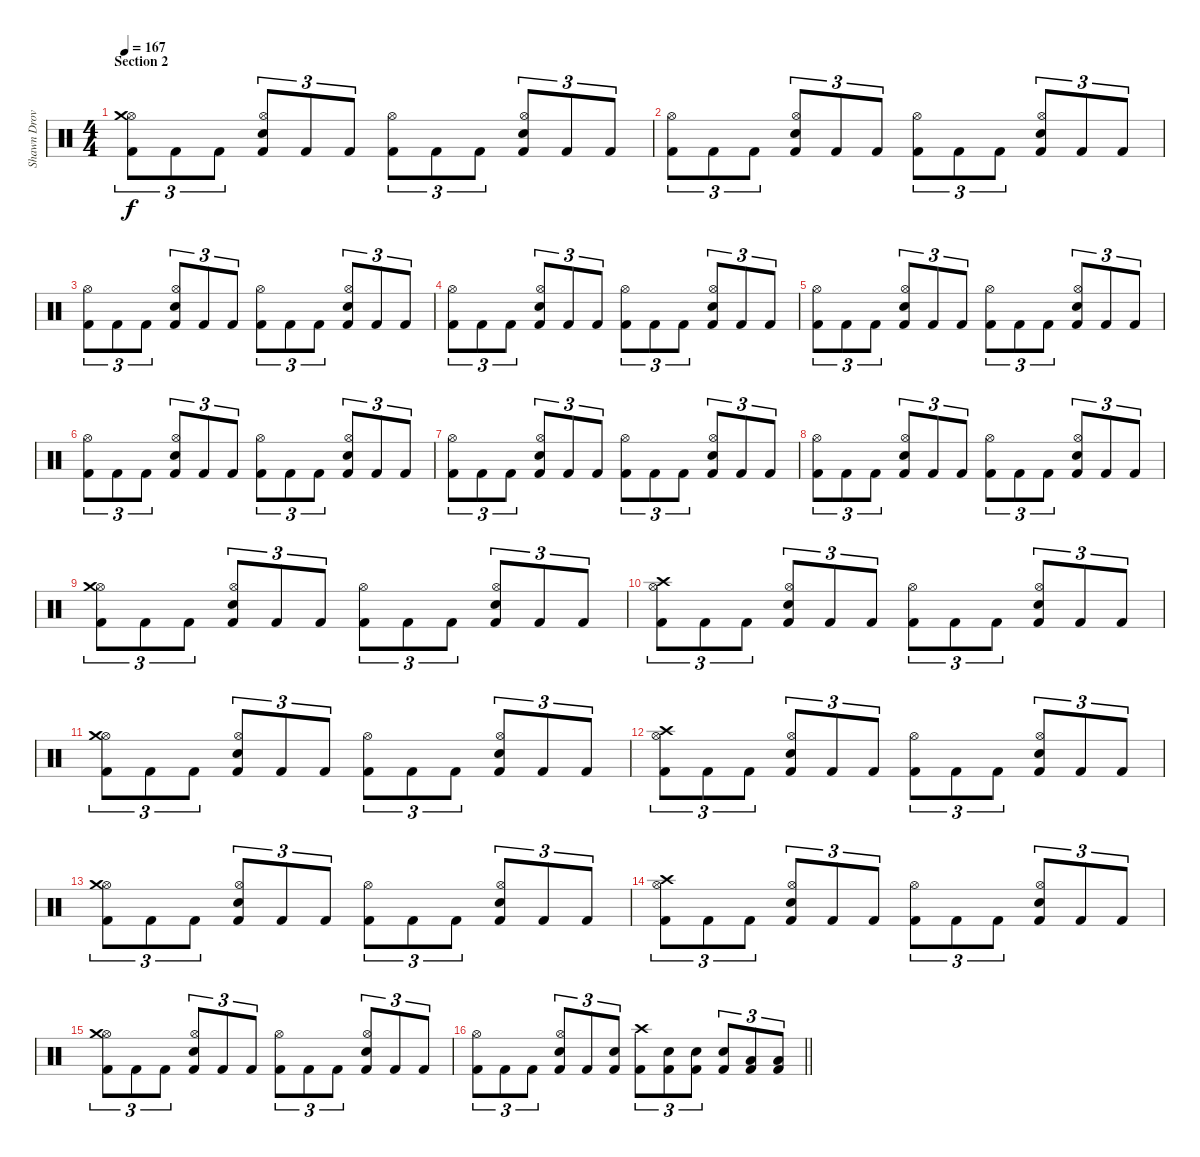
\track ("Shawn Drover" "Shawn Drov") {instrument percussion}
\staff {score}
\articulation defaults
\ts (4 4)
\section ("" "Section 2")
\tempo 167
\clef neutral
\ks c
("Kick (hit) 2" "Hi-Hat (open)" "Crash medium (hit)").8{tu (3 2) dy f} "Kick (hit) 2".8{tu (3 2)} "Kick (hit) 2".8{tu (3 2)} ("Kick (hit) 2" "Snare (hit) 2" "Hi-Hat (open)").8{tu (3 2)} "Kick (hit) 2".8{tu (3 2)} "Kick (hit) 2".8{tu (3 2)} ("Kick (hit) 2" "Hi-Hat (open)").8{tu (3 2)} "Kick (hit) 2".8{tu (3 2)} "Kick (hit) 2".8{tu (3 2)} ("Kick (hit) 2" "Snare (hit) 2" "Hi-Hat (open)").8{tu (3 2)} "Kick (hit) 2".8{tu (3 2)} "Kick (hit) 2".8{tu (3 2)} |
("Kick (hit) 2" "Hi-Hat (open)").8{tu (3 2)} "Kick (hit) 2".8{tu (3 2)} "Kick (hit) 2".8{tu (3 2)} ("Kick (hit) 2" "Snare (hit) 2" "Hi-Hat (open)").8{tu (3 2)} "Kick (hit) 2".8{tu (3 2)} "Kick (hit) 2".8{tu (3 2)} ("Kick (hit) 2" "Hi-Hat (open)").8{tu (3 2)} "Kick (hit) 2".8{tu (3 2)} "Kick (hit) 2".8{tu (3 2)} ("Kick (hit) 2" "Snare (hit) 2" "Hi-Hat (open)").8{tu (3 2)} "Kick (hit) 2".8{tu (3 2)} "Kick (hit) 2".8{tu (3 2)} |
("Kick (hit) 2" "Hi-Hat (open)").8{tu (3 2)} "Kick (hit) 2".8{tu (3 2)} "Kick (hit) 2".8{tu (3 2)} ("Kick (hit) 2" "Snare (hit) 2" "Hi-Hat (open)").8{tu (3 2)} "Kick (hit) 2".8{tu (3 2)} "Kick (hit) 2".8{tu (3 2)} ("Kick (hit) 2" "Hi-Hat (open)").8{tu (3 2)} "Kick (hit) 2".8{tu (3 2)} "Kick (hit) 2".8{tu (3 2)} ("Kick (hit) 2" "Snare (hit) 2" "Hi-Hat (open)").8{tu (3 2)} "Kick (hit) 2".8{tu (3 2)} "Kick (hit) 2".8{tu (3 2)} |
("Kick (hit) 2" "Hi-Hat (open)").8{tu (3 2)} "Kick (hit) 2".8{tu (3 2)} "Kick (hit) 2".8{tu (3 2)} ("Kick (hit) 2" "Snare (hit) 2" "Hi-Hat (open)").8{tu (3 2)} "Kick (hit) 2".8{tu (3 2)} "Kick (hit) 2".8{tu (3 2)} ("Kick (hit) 2" "Hi-Hat (open)").8{tu (3 2)} "Kick (hit) 2".8{tu (3 2)} "Kick (hit) 2".8{tu (3 2)} ("Kick (hit) 2" "Snare (hit) 2" "Hi-Hat (open)").8{tu (3 2)} "Kick (hit) 2".8{tu (3 2)} "Kick (hit) 2".8{tu (3 2)} |
("Kick (hit) 2" "Hi-Hat (open)").8{tu (3 2)} "Kick (hit) 2".8{tu (3 2)} "Kick (hit) 2".8{tu (3 2)} ("Kick (hit) 2" "Snare (hit) 2" "Hi-Hat (open)").8{tu (3 2)} "Kick (hit) 2".8{tu (3 2)} "Kick (hit) 2".8{tu (3 2)} ("Kick (hit) 2" "Hi-Hat (open)").8{tu (3 2)} "Kick (hit) 2".8{tu (3 2)} "Kick (hit) 2".8{tu (3 2)} ("Kick (hit) 2" "Snare (hit) 2" "Hi-Hat (open)").8{tu (3 2)} "Kick (hit) 2".8{tu (3 2)} "Kick (hit) 2".8{tu (3 2)} |
("Kick (hit) 2" "Hi-Hat (open)").8{tu (3 2)} "Kick (hit) 2".8{tu (3 2)} "Kick (hit) 2".8{tu (3 2)} ("Kick (hit) 2" "Snare (hit) 2" "Hi-Hat (open)").8{tu (3 2)} "Kick (hit) 2".8{tu (3 2)} "Kick (hit) 2".8{tu (3 2)} ("Kick (hit) 2" "Hi-Hat (open)").8{tu (3 2)} "Kick (hit) 2".8{tu (3 2)} "Kick (hit) 2".8{tu (3 2)} ("Kick (hit) 2" "Snare (hit) 2" "Hi-Hat (open)").8{tu (3 2)} "Kick (hit) 2".8{tu (3 2)} "Kick (hit) 2".8{tu (3 2)} |
("Kick (hit) 2" "Hi-Hat (open)").8{tu (3 2)} "Kick (hit) 2".8{tu (3 2)} "Kick (hit) 2".8{tu (3 2)} ("Kick (hit) 2" "Snare (hit) 2" "Hi-Hat (open)").8{tu (3 2)} "Kick (hit) 2".8{tu (3 2)} "Kick (hit) 2".8{tu (3 2)} ("Kick (hit) 2" "Hi-Hat (open)").8{tu (3 2)} "Kick (hit) 2".8{tu (3 2)} "Kick (hit) 2".8{tu (3 2)} ("Kick (hit) 2" "Snare (hit) 2" "Hi-Hat (open)").8{tu (3 2)} "Kick (hit) 2".8{tu (3 2)} "Kick (hit) 2".8{tu (3 2)} |
("Kick (hit) 2" "Hi-Hat (open)").8{tu (3 2)} "Kick (hit) 2".8{tu (3 2)} "Kick (hit) 2".8{tu (3 2)} ("Kick (hit) 2" "Snare (hit) 2" "Hi-Hat (open)").8{tu (3 2)} "Kick (hit) 2".8{tu (3 2)} "Kick (hit) 2".8{tu (3 2)} ("Kick (hit) 2" "Hi-Hat (open)").8{tu (3 2)} "Kick (hit) 2".8{tu (3 2)} "Kick (hit) 2".8{tu (3 2)} ("Kick (hit) 2" "Snare (hit) 2" "Hi-Hat (open)").8{tu (3 2)} "Kick (hit) 2".8{tu (3 2)} "Kick (hit) 2".8{tu (3 2)} |
("Kick (hit) 2" "Hi-Hat (open)" "Crash medium (hit)").8{tu (3 2)} "Kick (hit) 2".8{tu (3 2)} "Kick (hit) 2".8{tu (3 2)} ("Kick (hit) 2" "Snare (hit) 2" "Hi-Hat (open)").8{tu (3 2)} "Kick (hit) 2".8{tu (3 2)} "Kick (hit) 2".8{tu (3 2)} ("Kick (hit) 2" "Hi-Hat (open)").8{tu (3 2)} "Kick (hit) 2".8{tu (3 2)} "Kick (hit) 2".8{tu (3 2)} ("Kick (hit) 2" "Snare (hit) 2" "Hi-Hat (open)").8{tu (3 2)} "Kick (hit) 2".8{tu (3 2)} "Kick (hit) 2".8{tu (3 2)} |
("Kick (hit) 2" "Hi-Hat (open)" "Crash high (hit)").8{tu (3 2)} "Kick (hit) 2".8{tu (3 2)} "Kick (hit) 2".8{tu (3 2)} ("Kick (hit) 2" "Snare (hit) 2" "Hi-Hat (open)").8{tu (3 2)} "Kick (hit) 2".8{tu (3 2)} "Kick (hit) 2".8{tu (3 2)} ("Kick (hit) 2" "Hi-Hat (open)").8{tu (3 2)} "Kick (hit) 2".8{tu (3 2)} "Kick (hit) 2".8{tu (3 2)} ("Kick (hit) 2" "Snare (hit) 2" "Hi-Hat (open)").8{tu (3 2)} "Kick (hit) 2".8{tu (3 2)} "Kick (hit) 2".8{tu (3 2)} |
("Kick (hit) 2" "Hi-Hat (open)" "Crash medium (hit)").8{tu (3 2)} "Kick (hit) 2".8{tu (3 2)} "Kick (hit) 2".8{tu (3 2)} ("Kick (hit) 2" "Snare (hit) 2" "Hi-Hat (open)").8{tu (3 2)} "Kick (hit) 2".8{tu (3 2)} "Kick (hit) 2".8{tu (3 2)} ("Kick (hit) 2" "Hi-Hat (open)").8{tu (3 2)} "Kick (hit) 2".8{tu (3 2)} "Kick (hit) 2".8{tu (3 2)} ("Kick (hit) 2" "Snare (hit) 2" "Hi-Hat (open)").8{tu (3 2)} "Kick (hit) 2".8{tu (3 2)} "Kick (hit) 2".8{tu (3 2)} |
("Kick (hit) 2" "Hi-Hat (open)" "Crash high (hit)").8{tu (3 2)} "Kick (hit) 2".8{tu (3 2)} "Kick (hit) 2".8{tu (3 2)} ("Kick (hit) 2" "Snare (hit) 2" "Hi-Hat (open)").8{tu (3 2)} "Kick (hit) 2".8{tu (3 2)} "Kick (hit) 2".8{tu (3 2)} ("Kick (hit) 2" "Hi-Hat (open)").8{tu (3 2)} "Kick (hit) 2".8{tu (3 2)} "Kick (hit) 2".8{tu (3 2)} ("Kick (hit) 2" "Snare (hit) 2" "Hi-Hat (open)").8{tu (3 2)} "Kick (hit) 2".8{tu (3 2)} "Kick (hit) 2".8{tu (3 2)} |
("Kick (hit) 2" "Hi-Hat (open)" "Crash medium (hit)").8{tu (3 2)} "Kick (hit) 2".8{tu (3 2)} "Kick (hit) 2".8{tu (3 2)} ("Kick (hit) 2" "Snare (hit) 2" "Hi-Hat (open)").8{tu (3 2)} "Kick (hit) 2".8{tu (3 2)} "Kick (hit) 2".8{tu (3 2)} ("Kick (hit) 2" "Hi-Hat (open)").8{tu (3 2)} "Kick (hit) 2".8{tu (3 2)} "Kick (hit) 2".8{tu (3 2)} ("Kick (hit) 2" "Snare (hit) 2" "Hi-Hat (open)").8{tu (3 2)} "Kick (hit) 2".8{tu (3 2)} "Kick (hit) 2".8{tu (3 2)} |
("Kick (hit) 2" "Hi-Hat (open)" "Crash high (hit)").8{tu (3 2)} "Kick (hit) 2".8{tu (3 2)} "Kick (hit) 2".8{tu (3 2)} ("Kick (hit) 2" "Snare (hit) 2" "Hi-Hat (open)").8{tu (3 2)} "Kick (hit) 2".8{tu (3 2)} "Kick (hit) 2".8{tu (3 2)} ("Kick (hit) 2" "Hi-Hat (open)").8{tu (3 2)} "Kick (hit) 2".8{tu (3 2)} "Kick (hit) 2".8{tu (3 2)} ("Kick (hit) 2" "Snare (hit) 2" "Hi-Hat (open)").8{tu (3 2)} "Kick (hit) 2".8{tu (3 2)} "Kick (hit) 2".8{tu (3 2)} |
("Kick (hit) 2" "Hi-Hat (open)" "Crash medium (hit)").8{tu (3 2)} "Kick (hit) 2".8{tu (3 2)} "Kick (hit) 2".8{tu (3 2)} ("Kick (hit) 2" "Snare (hit) 2" "Hi-Hat (open)").8{tu (3 2)} "Kick (hit) 2".8{tu (3 2)} "Kick (hit) 2".8{tu (3 2)} ("Kick (hit) 2" "Hi-Hat (open)").8{tu (3 2)} "Kick (hit) 2".8{tu (3 2)} "Kick (hit) 2".8{tu (3 2)} ("Kick (hit) 2" "Snare (hit) 2" "Hi-Hat (open)").8{tu (3 2)} "Kick (hit) 2".8{tu (3 2)} "Kick (hit) 2".8{tu (3 2)} |
\barLineRight lightlight
("Kick (hit) 2" "Hi-Hat (open)").8{tu (3 2)} "Kick (hit) 2".8{tu (3 2)} "Kick (hit) 2".8{tu (3 2)} ("Kick (hit) 2" "Snare (hit) 2" "Hi-Hat (open)").8{tu (3 2)} "Kick (hit) 2".8{tu (3 2)} ("Kick (hit) 2" "Snare (hit) 2").8{tu (3 2)} ("Kick (hit) 2" "Crash high (hit)").8{tu (3 2)} ("Kick (hit) 2" "Snare (hit) 2").8{tu (3 2)} ("Kick (hit) 2" "Snare (hit) 2").8{tu (3 2)} ("Kick (hit) 2" "Snare (hit) 2").8{tu (3 2)} ("Kick (hit) 2" "Low Tom (hit)").8{tu (3 2)} ("Kick (hit) 2" "Low Tom (hit)").8{tu (3 2)}
